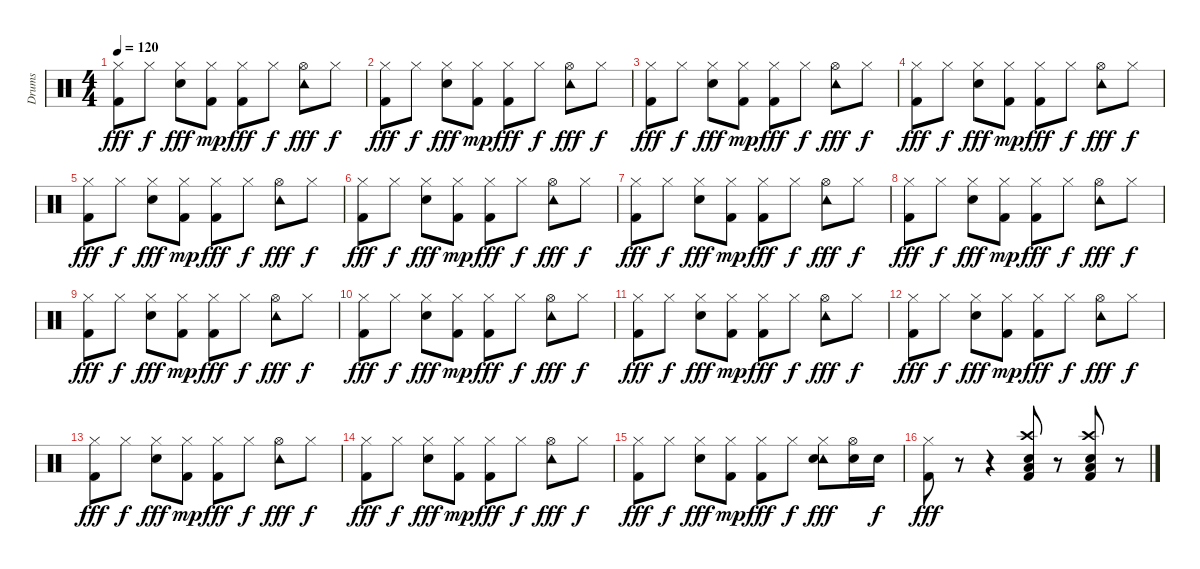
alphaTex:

\track ("Drums" "Drums") {instrument percussion}
\staff {score}
\articulation defaults
\ts (4 4)
\tempo 120
\clef neutral
\ks c
("Hi-Hat (closed)" "Kick (hit) 2").8{dy fff} "Hi-Hat (closed)".8{dy f} ("Hi-Hat (closed)" "Snare (hit) 2").8{dy fff} ("Hi-Hat (closed)" "Kick (hit) 2").8{dy mp} ("Hi-Hat (closed)" "Kick (hit) 2").8{dy fff} "Hi-Hat (closed)".8{dy f} ("Tambourine (hit)" "Hi-Hat (open)").8{dy fff} "Hi-Hat (closed)".8{dy f} |
("Hi-Hat (closed)" "Kick (hit) 2").8{dy fff} "Hi-Hat (closed)".8{dy f} ("Hi-Hat (closed)" "Snare (hit) 2").8{dy fff} ("Hi-Hat (closed)" "Kick (hit) 2").8{dy mp} ("Hi-Hat (closed)" "Kick (hit) 2").8{dy fff} "Hi-Hat (closed)".8{dy f} ("Tambourine (hit)" "Hi-Hat (open)").8{dy fff} "Hi-Hat (closed)".8{dy f} |
("Hi-Hat (closed)" "Kick (hit) 2").8{dy fff} "Hi-Hat (closed)".8{dy f} ("Hi-Hat (closed)" "Snare (hit) 2").8{dy fff} ("Hi-Hat (closed)" "Kick (hit) 2").8{dy mp} ("Hi-Hat (closed)" "Kick (hit) 2").8{dy fff} "Hi-Hat (closed)".8{dy f} ("Tambourine (hit)" "Hi-Hat (open)").8{dy fff} "Hi-Hat (closed)".8{dy f} |
("Hi-Hat (closed)" "Kick (hit) 2").8{dy fff} "Hi-Hat (closed)".8{dy f} ("Hi-Hat (closed)" "Snare (hit) 2").8{dy fff} ("Hi-Hat (closed)" "Kick (hit) 2").8{dy mp} ("Hi-Hat (closed)" "Kick (hit) 2").8{dy fff} "Hi-Hat (closed)".8{dy f} ("Tambourine (hit)" "Hi-Hat (open)").8{dy fff} "Hi-Hat (closed)".8{dy f} |
("Hi-Hat (closed)" "Kick (hit) 2").8{dy fff} "Hi-Hat (closed)".8{dy f} ("Hi-Hat (closed)" "Snare (hit) 2").8{dy fff} ("Hi-Hat (closed)" "Kick (hit) 2").8{dy mp} ("Hi-Hat (closed)" "Kick (hit) 2").8{dy fff} "Hi-Hat (closed)".8{dy f} ("Tambourine (hit)" "Hi-Hat (open)").8{dy fff} "Hi-Hat (closed)".8{dy f} |
("Hi-Hat (closed)" "Kick (hit) 2").8{dy fff} "Hi-Hat (closed)".8{dy f} ("Hi-Hat (closed)" "Snare (hit) 2").8{dy fff} ("Hi-Hat (closed)" "Kick (hit) 2").8{dy mp} ("Hi-Hat (closed)" "Kick (hit) 2").8{dy fff} "Hi-Hat (closed)".8{dy f} ("Tambourine (hit)" "Hi-Hat (open)").8{dy fff} "Hi-Hat (closed)".8{dy f} |
("Hi-Hat (closed)" "Kick (hit) 2").8{dy fff} "Hi-Hat (closed)".8{dy f} ("Hi-Hat (closed)" "Snare (hit) 2").8{dy fff} ("Hi-Hat (closed)" "Kick (hit) 2").8{dy mp} ("Hi-Hat (closed)" "Kick (hit) 2").8{dy fff} "Hi-Hat (closed)".8{dy f} ("Tambourine (hit)" "Hi-Hat (open)").8{dy fff} "Hi-Hat (closed)".8{dy f} |
("Hi-Hat (closed)" "Kick (hit) 2").8{dy fff} "Hi-Hat (closed)".8{dy f} ("Hi-Hat (closed)" "Snare (hit) 2").8{dy fff} ("Hi-Hat (closed)" "Kick (hit) 2").8{dy mp} ("Hi-Hat (closed)" "Kick (hit) 2").8{dy fff} "Hi-Hat (closed)".8{dy f} ("Tambourine (hit)" "Hi-Hat (open)").8{dy fff} "Hi-Hat (closed)".8{dy f} |
("Hi-Hat (closed)" "Kick (hit) 2").8{dy fff} "Hi-Hat (closed)".8{dy f} ("Hi-Hat (closed)" "Snare (hit) 2").8{dy fff} ("Hi-Hat (closed)" "Kick (hit) 2").8{dy mp} ("Hi-Hat (closed)" "Kick (hit) 2").8{dy fff} "Hi-Hat (closed)".8{dy f} ("Tambourine (hit)" "Hi-Hat (open)").8{dy fff} "Hi-Hat (closed)".8{dy f} |
("Hi-Hat (closed)" "Kick (hit) 2").8{dy fff} "Hi-Hat (closed)".8{dy f} ("Hi-Hat (closed)" "Snare (hit) 2").8{dy fff} ("Hi-Hat (closed)" "Kick (hit) 2").8{dy mp} ("Hi-Hat (closed)" "Kick (hit) 2").8{dy fff} "Hi-Hat (closed)".8{dy f} ("Tambourine (hit)" "Hi-Hat (open)").8{dy fff} "Hi-Hat (closed)".8{dy f} |
("Hi-Hat (closed)" "Kick (hit) 2").8{dy fff} "Hi-Hat (closed)".8{dy f} ("Hi-Hat (closed)" "Snare (hit) 2").8{dy fff} ("Hi-Hat (closed)" "Kick (hit) 2").8{dy mp} ("Hi-Hat (closed)" "Kick (hit) 2").8{dy fff} "Hi-Hat (closed)".8{dy f} ("Tambourine (hit)" "Hi-Hat (open)").8{dy fff} "Hi-Hat (closed)".8{dy f} |
("Hi-Hat (closed)" "Kick (hit) 2").8{dy fff} "Hi-Hat (closed)".8{dy f} ("Hi-Hat (closed)" "Snare (hit) 2").8{dy fff} ("Hi-Hat (closed)" "Kick (hit) 2").8{dy mp} ("Hi-Hat (closed)" "Kick (hit) 2").8{dy fff} "Hi-Hat (closed)".8{dy f} ("Tambourine (hit)" "Hi-Hat (open)").8{dy fff} "Hi-Hat (closed)".8{dy f} |
("Hi-Hat (closed)" "Kick (hit) 2").8{dy fff} "Hi-Hat (closed)".8{dy f} ("Hi-Hat (closed)" "Snare (hit) 2").8{dy fff} ("Hi-Hat (closed)" "Kick (hit) 2").8{dy mp} ("Hi-Hat (closed)" "Kick (hit) 2").8{dy fff} "Hi-Hat (closed)".8{dy f} ("Tambourine (hit)" "Hi-Hat (open)").8{dy fff} "Hi-Hat (closed)".8{dy f} |
("Hi-Hat (closed)" "Kick (hit) 2").8{dy fff} "Hi-Hat (closed)".8{dy f} ("Hi-Hat (closed)" "Snare (hit) 2").8{dy fff} ("Hi-Hat (closed)" "Kick (hit) 2").8{dy mp} ("Hi-Hat (closed)" "Kick (hit) 2").8{dy fff} "Hi-Hat (closed)".8{dy f} ("Tambourine (hit)" "Hi-Hat (open)").8{dy fff} "Hi-Hat (closed)".8{dy f} |
("Hi-Hat (closed)" "Kick (hit) 2").8{dy fff} "Hi-Hat (closed)".8{dy f} ("Hi-Hat (closed)" "Snare (hit) 2").8{dy fff} ("Hi-Hat (closed)" "Kick (hit) 2").8{dy mp} ("Hi-Hat (closed)" "Kick (hit) 2").8{dy fff} "Hi-Hat (closed)".8{dy f} ("Tambourine (hit)" "Hi-Hat (closed)" "Snare (hit) 2").8{dy fff} ("Hi-Hat (open)" "Snare (hit) 2").16 "Snare (hit) 2".16{dy f} |
("Hi-Hat (closed)" "Kick (hit) 2").8{dy fff} r.8 r.4 ("Crash high (hit)" "Low Floor Tom (hit)" "Snare (hit) 2" "Kick (hit) 2").8 r.8 ("Crash high (hit)" "Low Tom (hit)" "Snare (hit) 2" "Kick (hit) 2").8 r.8
